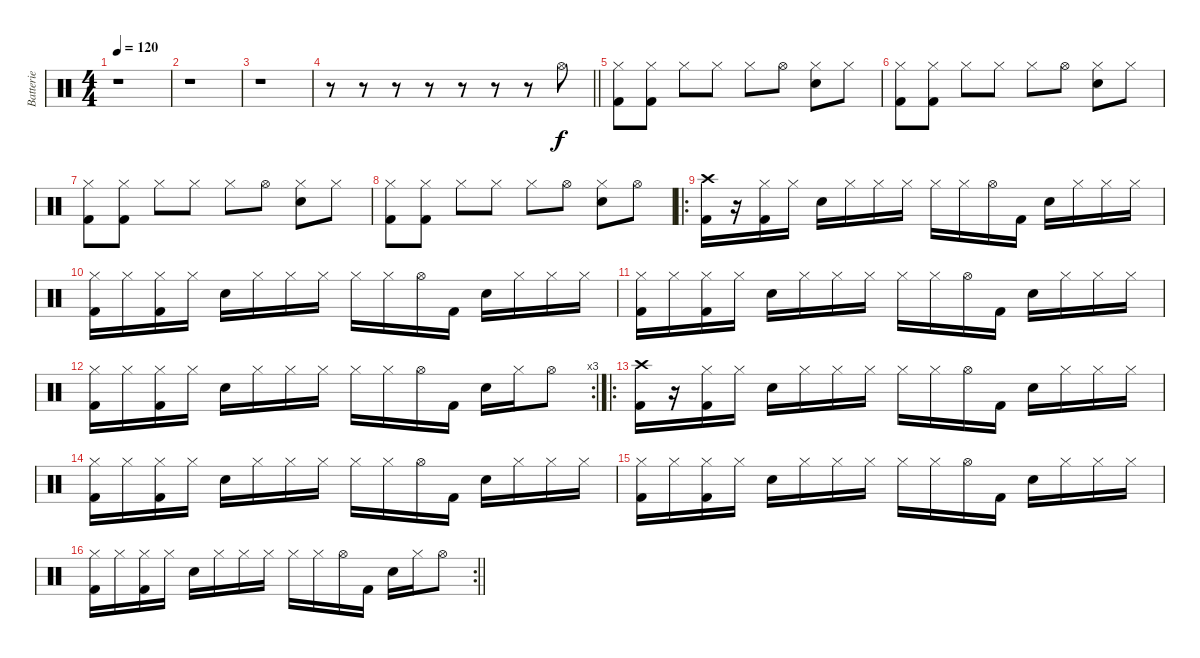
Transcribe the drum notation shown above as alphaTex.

\track ("Batterie" "Batterie") {instrument percussion}
\staff {score}
\articulation defaults
\ts (4 4)
\tempo 120
\clef neutral
\ks c
r.1{dy f} |
r.1 |
r.1 |
\barLineRight lightlight
r.8 r.8 r.8 r.8 r.8 r.8 r.8 "Hi-Hat (open)".8 |
("Hi-Hat (closed)" "Kick (hit) 2").8 ("Hi-Hat (closed)" "Kick (hit) 2").8 "Hi-Hat (closed)".8 "Hi-Hat (closed)".8 "Hi-Hat (closed)".8 "Hi-Hat (open)".8 ("Hi-Hat (closed)" "Snare (hit) 2").8 "Hi-Hat (closed)".8 |
("Hi-Hat (closed)" "Kick (hit) 2").8 ("Hi-Hat (closed)" "Kick (hit) 2").8 "Hi-Hat (closed)".8 "Hi-Hat (closed)".8 "Hi-Hat (closed)".8 "Hi-Hat (open)".8 ("Hi-Hat (closed)" "Snare (hit) 2").8 "Hi-Hat (closed)".8 |
("Hi-Hat (closed)" "Kick (hit) 2").8 ("Hi-Hat (closed)" "Kick (hit) 2").8 "Hi-Hat (closed)".8 "Hi-Hat (closed)".8 "Hi-Hat (closed)".8 "Hi-Hat (open)".8 ("Hi-Hat (closed)" "Snare (hit) 2").8 "Hi-Hat (closed)".8 |
("Hi-Hat (closed)" "Kick (hit) 2").8 ("Hi-Hat (closed)" "Kick (hit) 2").8 "Hi-Hat (closed)".8 "Hi-Hat (closed)".8 "Hi-Hat (closed)".8 "Hi-Hat (open)".8 ("Hi-Hat (closed)" "Snare (hit) 2").8 "Hi-Hat (open)".8 |
\ro
("Crash high (hit)" "Kick (hit) 2").16 r.16 ("Hi-Hat (closed)" "Kick (hit) 2").16 "Hi-Hat (closed)".16 "Snare (hit) 2".16 "Hi-Hat (closed)".16 "Hi-Hat (closed)".16 "Hi-Hat (closed)".16 "Hi-Hat (closed)".16 "Hi-Hat (closed)".16 "Hi-Hat (open)".16 "Kick (hit) 2".16 "Snare (hit) 2".16 "Hi-Hat (closed)".16 "Hi-Hat (closed)".16 "Hi-Hat (closed)".16 |
("Hi-Hat (closed)" "Kick (hit) 2").16 "Hi-Hat (closed)".16 ("Hi-Hat (closed)" "Kick (hit) 2").16 "Hi-Hat (closed)".16 "Snare (hit) 2".16 "Hi-Hat (closed)".16 "Hi-Hat (closed)".16 "Hi-Hat (closed)".16 "Hi-Hat (closed)".16 "Hi-Hat (closed)".16 "Hi-Hat (open)".16 "Kick (hit) 2".16 "Snare (hit) 2".16 "Hi-Hat (closed)".16 "Hi-Hat (closed)".16 "Hi-Hat (closed)".16 |
("Hi-Hat (closed)" "Kick (hit) 2").16 "Hi-Hat (closed)".16 ("Hi-Hat (closed)" "Kick (hit) 2").16 "Hi-Hat (closed)".16 "Snare (hit) 2".16 "Hi-Hat (closed)".16 "Hi-Hat (closed)".16 "Hi-Hat (closed)".16 "Hi-Hat (closed)".16 "Hi-Hat (closed)".16 "Hi-Hat (open)".16 "Kick (hit) 2".16 "Snare (hit) 2".16 "Hi-Hat (closed)".16 "Hi-Hat (closed)".16 "Hi-Hat (closed)".16 |
\rc 3
("Hi-Hat (closed)" "Kick (hit) 2").16 "Hi-Hat (closed)".16 ("Hi-Hat (closed)" "Kick (hit) 2").16 "Hi-Hat (closed)".16 "Snare (hit) 2".16 "Hi-Hat (closed)".16 "Hi-Hat (closed)".16 "Hi-Hat (closed)".16 "Hi-Hat (closed)".16 "Hi-Hat (closed)".16 "Hi-Hat (open)".16 "Kick (hit) 2".16 "Snare (hit) 2".16 "Hi-Hat (closed)".16 "Hi-Hat (open)".8 |
\ro
("Crash high (hit)" "Kick (hit) 2").16 r.16 ("Hi-Hat (closed)" "Kick (hit) 2").16 "Hi-Hat (closed)".16 "Snare (hit) 2".16 "Hi-Hat (closed)".16 "Hi-Hat (closed)".16 "Hi-Hat (closed)".16 "Hi-Hat (closed)".16 "Hi-Hat (closed)".16 "Hi-Hat (open)".16 "Kick (hit) 2".16 "Snare (hit) 2".16 "Hi-Hat (closed)".16 "Hi-Hat (closed)".16 "Hi-Hat (closed)".16 |
("Hi-Hat (closed)" "Kick (hit) 2").16 "Hi-Hat (closed)".16 ("Hi-Hat (closed)" "Kick (hit) 2").16 "Hi-Hat (closed)".16 "Snare (hit) 2".16 "Hi-Hat (closed)".16 "Hi-Hat (closed)".16 "Hi-Hat (closed)".16 "Hi-Hat (closed)".16 "Hi-Hat (closed)".16 "Hi-Hat (open)".16 "Kick (hit) 2".16 "Snare (hit) 2".16 "Hi-Hat (closed)".16 "Hi-Hat (closed)".16 "Hi-Hat (closed)".16 |
("Hi-Hat (closed)" "Kick (hit) 2").16 "Hi-Hat (closed)".16 ("Hi-Hat (closed)" "Kick (hit) 2").16 "Hi-Hat (closed)".16 "Snare (hit) 2".16 "Hi-Hat (closed)".16 "Hi-Hat (closed)".16 "Hi-Hat (closed)".16 "Hi-Hat (closed)".16 "Hi-Hat (closed)".16 "Hi-Hat (open)".16 "Kick (hit) 2".16 "Snare (hit) 2".16 "Hi-Hat (closed)".16 "Hi-Hat (closed)".16 "Hi-Hat (closed)".16 |
\rc 2
\barLineRight lightlight
("Hi-Hat (closed)" "Kick (hit) 2").16 "Hi-Hat (closed)".16 ("Hi-Hat (closed)" "Kick (hit) 2").16 "Hi-Hat (closed)".16 "Snare (hit) 2".16 "Hi-Hat (closed)".16 "Hi-Hat (closed)".16 "Hi-Hat (closed)".16 "Hi-Hat (closed)".16 "Hi-Hat (closed)".16 "Hi-Hat (open)".16 "Kick (hit) 2".16 "Snare (hit) 2".16 "Hi-Hat (closed)".16 "Hi-Hat (open)".8
